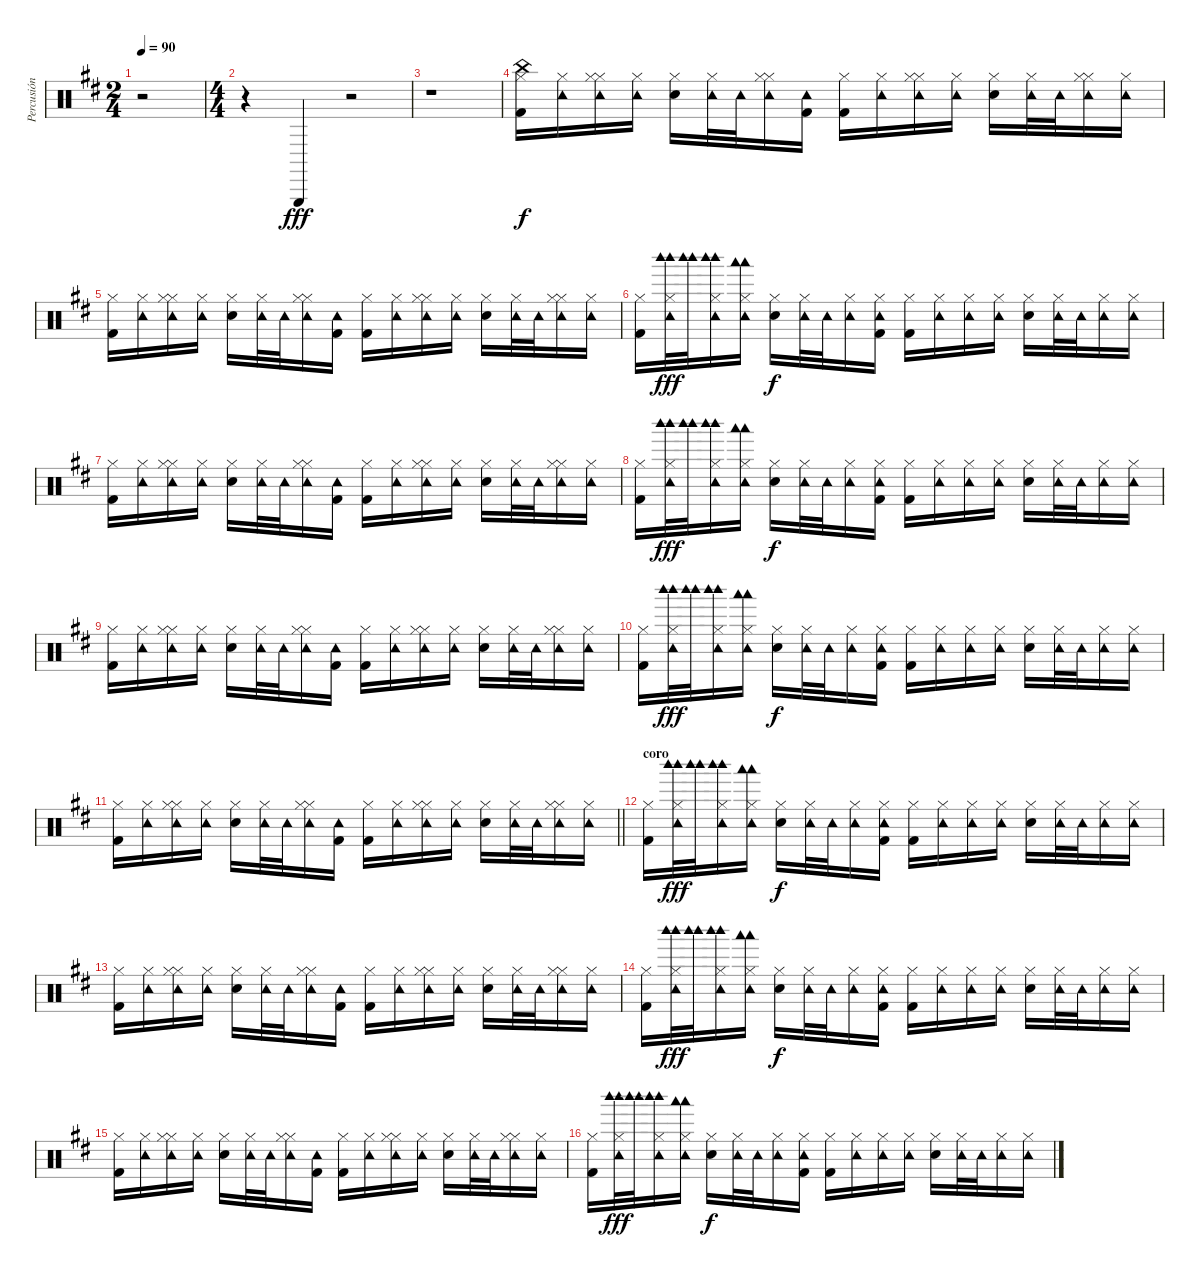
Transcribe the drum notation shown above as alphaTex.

\track ("Percusión" "Percusión") {instrument percussion}
\staff
\articulation defaults
\ts (2 4)
\tempo 90
\clef neutral
\ks bminor
r.2{dy fff} |
\ts (4 4)
r.4 "Triangle (hit)".4 r.2 |
r.1 |
("Kick (hit) 2" "China (hit)" "Hi-Hat (closed)").16{dy f} ("Tambourine (hit)" "Hi-Hat (closed)").16 ("Hi-Hat (closed)" "Tambourine (hit)" "Hi-Hat (closed)").16 ("Tambourine (hit)" "Hi-Hat (closed)").16 ("Electric Snare (hit)" "Hi-Hat (closed)").16 ("Tambourine (hit)" "Hi-Hat (closed)").32 "Tambourine (hit)".32 ("Hi-Hat (closed)" "Tambourine (hit)" "Hi-Hat (closed)").16 ("Kick (hit) 2" "Tambourine (hit)").16 ("Kick (hit) 2" "Hi-Hat (closed)").16 ("Tambourine (hit)" "Hi-Hat (closed)").16 ("Hi-Hat (closed)" "Tambourine (hit)" "Hi-Hat (closed)").16 ("Tambourine (hit)" "Hi-Hat (closed)").16 ("Electric Snare (hit)" "Hi-Hat (closed)").16 ("Tambourine (hit)" "Hi-Hat (closed)").32 "Tambourine (hit)".32 ("Hi-Hat (closed)" "Tambourine (hit)" "Hi-Hat (closed)").16 ("Tambourine (hit)" "Hi-Hat (closed)").16 |
("Kick (hit) 2" "Hi-Hat (closed)").16 ("Tambourine (hit)" "Hi-Hat (closed)").16 ("Hi-Hat (closed)" "Tambourine (hit)" "Hi-Hat (closed)").16 ("Tambourine (hit)" "Hi-Hat (closed)").16 ("Electric Snare (hit)" "Hi-Hat (closed)").16 ("Tambourine (hit)" "Hi-Hat (closed)").32 "Tambourine (hit)".32 ("Hi-Hat (closed)" "Tambourine (hit)" "Hi-Hat (closed)").16 ("Kick (hit) 2" "Tambourine (hit)").16 ("Kick (hit) 2" "Hi-Hat (closed)").16 ("Tambourine (hit)" "Hi-Hat (closed)").16 ("Hi-Hat (closed)" "Tambourine (hit)" "Hi-Hat (closed)").16 ("Tambourine (hit)" "Hi-Hat (closed)").16 ("Electric Snare (hit)" "Hi-Hat (closed)").16 ("Tambourine (hit)" "Hi-Hat (closed)").32 "Tambourine (hit)".32 ("Hi-Hat (closed)" "Tambourine (hit)" "Hi-Hat (closed)").16 ("Tambourine (hit)" "Hi-Hat (closed)").16 |
("Kick (hit) 2" "Hi-Hat (closed)").16 ("Hi-Hat (closed)" "Tambourine (hit)" "Woodblock high (hit)" "Woodblock high (hit)").32{dy fff} ("Woodblock high (hit)" "Woodblock high (hit)").32 ("Hi-Hat (closed)" "Tambourine (hit)" "Woodblock high (hit)" "Woodblock high (hit)").16 ("Hi-Hat (closed)" "Tambourine (hit)" "Woodblock low (hit)" "Woodblock low (hit)").16 ("Electric Snare (hit)" "Hi-Hat (closed)").16{dy f} ("Hi-Hat (closed)" "Tambourine (hit)").32 "Tambourine (hit)".32 ("Hi-Hat (closed)" "Tambourine (hit)").16 ("Kick (hit) 2" "Hi-Hat (closed)" "Tambourine (hit)").16 ("Kick (hit) 2" "Hi-Hat (closed)").16 ("Hi-Hat (closed)" "Tambourine (hit)").16 ("Hi-Hat (closed)" "Tambourine (hit)").16 ("Hi-Hat (closed)" "Tambourine (hit)").16 ("Electric Snare (hit)" "Hi-Hat (closed)").16 ("Hi-Hat (closed)" "Tambourine (hit)").32 "Tambourine (hit)".32 ("Hi-Hat (closed)" "Tambourine (hit)").16 ("Hi-Hat (closed)" "Tambourine (hit)").16 |
("Kick (hit) 2" "Hi-Hat (closed)").16 ("Tambourine (hit)" "Hi-Hat (closed)").16 ("Hi-Hat (closed)" "Tambourine (hit)" "Hi-Hat (closed)").16 ("Tambourine (hit)" "Hi-Hat (closed)").16 ("Electric Snare (hit)" "Hi-Hat (closed)").16 ("Tambourine (hit)" "Hi-Hat (closed)").32 "Tambourine (hit)".32 ("Hi-Hat (closed)" "Tambourine (hit)" "Hi-Hat (closed)").16 ("Kick (hit) 2" "Tambourine (hit)").16 ("Kick (hit) 2" "Hi-Hat (closed)").16 ("Tambourine (hit)" "Hi-Hat (closed)").16 ("Hi-Hat (closed)" "Tambourine (hit)" "Hi-Hat (closed)").16 ("Tambourine (hit)" "Hi-Hat (closed)").16 ("Electric Snare (hit)" "Hi-Hat (closed)").16 ("Tambourine (hit)" "Hi-Hat (closed)").32 "Tambourine (hit)".32 ("Hi-Hat (closed)" "Tambourine (hit)" "Hi-Hat (closed)").16 ("Tambourine (hit)" "Hi-Hat (closed)").16 |
("Kick (hit) 2" "Hi-Hat (closed)").16 ("Hi-Hat (closed)" "Tambourine (hit)" "Woodblock high (hit)" "Woodblock high (hit)").32{dy fff} ("Woodblock high (hit)" "Woodblock high (hit)").32 ("Hi-Hat (closed)" "Tambourine (hit)" "Woodblock high (hit)" "Woodblock high (hit)").16 ("Hi-Hat (closed)" "Tambourine (hit)" "Woodblock low (hit)" "Woodblock low (hit)").16 ("Electric Snare (hit)" "Hi-Hat (closed)").16{dy f} ("Hi-Hat (closed)" "Tambourine (hit)").32 "Tambourine (hit)".32 ("Hi-Hat (closed)" "Tambourine (hit)").16 ("Kick (hit) 2" "Hi-Hat (closed)" "Tambourine (hit)").16 ("Kick (hit) 2" "Hi-Hat (closed)").16 ("Hi-Hat (closed)" "Tambourine (hit)").16 ("Hi-Hat (closed)" "Tambourine (hit)").16 ("Hi-Hat (closed)" "Tambourine (hit)").16 ("Electric Snare (hit)" "Hi-Hat (closed)").16 ("Hi-Hat (closed)" "Tambourine (hit)").32 "Tambourine (hit)".32 ("Hi-Hat (closed)" "Tambourine (hit)").16 ("Hi-Hat (closed)" "Tambourine (hit)").16 |
("Kick (hit) 2" "Hi-Hat (closed)").16 ("Tambourine (hit)" "Hi-Hat (closed)").16 ("Hi-Hat (closed)" "Tambourine (hit)" "Hi-Hat (closed)").16 ("Tambourine (hit)" "Hi-Hat (closed)").16 ("Electric Snare (hit)" "Hi-Hat (closed)").16 ("Tambourine (hit)" "Hi-Hat (closed)").32 "Tambourine (hit)".32 ("Hi-Hat (closed)" "Tambourine (hit)" "Hi-Hat (closed)").16 ("Kick (hit) 2" "Tambourine (hit)").16 ("Kick (hit) 2" "Hi-Hat (closed)").16 ("Tambourine (hit)" "Hi-Hat (closed)").16 ("Hi-Hat (closed)" "Tambourine (hit)" "Hi-Hat (closed)").16 ("Tambourine (hit)" "Hi-Hat (closed)").16 ("Electric Snare (hit)" "Hi-Hat (closed)").16 ("Tambourine (hit)" "Hi-Hat (closed)").32 "Tambourine (hit)".32 ("Hi-Hat (closed)" "Tambourine (hit)" "Hi-Hat (closed)").16 ("Tambourine (hit)" "Hi-Hat (closed)").16 |
("Kick (hit) 2" "Hi-Hat (closed)").16 ("Hi-Hat (closed)" "Tambourine (hit)" "Woodblock high (hit)" "Woodblock high (hit)").32{dy fff} ("Woodblock high (hit)" "Woodblock high (hit)").32 ("Hi-Hat (closed)" "Tambourine (hit)" "Woodblock high (hit)" "Woodblock high (hit)").16 ("Hi-Hat (closed)" "Tambourine (hit)" "Woodblock low (hit)" "Woodblock low (hit)").16 ("Electric Snare (hit)" "Hi-Hat (closed)").16{dy f} ("Hi-Hat (closed)" "Tambourine (hit)").32 "Tambourine (hit)".32 ("Hi-Hat (closed)" "Tambourine (hit)").16 ("Kick (hit) 2" "Hi-Hat (closed)" "Tambourine (hit)").16 ("Kick (hit) 2" "Hi-Hat (closed)").16 ("Hi-Hat (closed)" "Tambourine (hit)").16 ("Hi-Hat (closed)" "Tambourine (hit)").16 ("Hi-Hat (closed)" "Tambourine (hit)").16 ("Electric Snare (hit)" "Hi-Hat (closed)").16 ("Hi-Hat (closed)" "Tambourine (hit)").32 "Tambourine (hit)".32 ("Hi-Hat (closed)" "Tambourine (hit)").16 ("Hi-Hat (closed)" "Tambourine (hit)").16 |
\barLineRight lightlight
("Kick (hit) 2" "Hi-Hat (closed)").16 ("Tambourine (hit)" "Hi-Hat (closed)").16 ("Hi-Hat (closed)" "Tambourine (hit)" "Hi-Hat (closed)").16 ("Tambourine (hit)" "Hi-Hat (closed)").16 ("Electric Snare (hit)" "Hi-Hat (closed)").16 ("Tambourine (hit)" "Hi-Hat (closed)").32 "Tambourine (hit)".32 ("Hi-Hat (closed)" "Tambourine (hit)" "Hi-Hat (closed)").16 ("Kick (hit) 2" "Tambourine (hit)").16 ("Kick (hit) 2" "Hi-Hat (closed)").16 ("Tambourine (hit)" "Hi-Hat (closed)").16 ("Hi-Hat (closed)" "Tambourine (hit)" "Hi-Hat (closed)").16 ("Tambourine (hit)" "Hi-Hat (closed)").16 ("Electric Snare (hit)" "Hi-Hat (closed)").16 ("Tambourine (hit)" "Hi-Hat (closed)").32 "Tambourine (hit)".32 ("Hi-Hat (closed)" "Tambourine (hit)" "Hi-Hat (closed)").16 ("Tambourine (hit)" "Hi-Hat (closed)").16 |
\section ("" "coro")
("Kick (hit) 2" "Hi-Hat (closed)").16 ("Hi-Hat (closed)" "Tambourine (hit)" "Woodblock high (hit)" "Woodblock high (hit)").32{dy fff} ("Woodblock high (hit)" "Woodblock high (hit)").32 ("Hi-Hat (closed)" "Tambourine (hit)" "Woodblock high (hit)" "Woodblock high (hit)").16 ("Hi-Hat (closed)" "Tambourine (hit)" "Woodblock low (hit)" "Woodblock low (hit)").16 ("Electric Snare (hit)" "Hi-Hat (closed)").16{dy f} ("Hi-Hat (closed)" "Tambourine (hit)").32 "Tambourine (hit)".32 ("Hi-Hat (closed)" "Tambourine (hit)").16 ("Kick (hit) 2" "Hi-Hat (closed)" "Tambourine (hit)").16 ("Kick (hit) 2" "Hi-Hat (closed)").16 ("Hi-Hat (closed)" "Tambourine (hit)").16 ("Hi-Hat (closed)" "Tambourine (hit)").16 ("Hi-Hat (closed)" "Tambourine (hit)").16 ("Electric Snare (hit)" "Hi-Hat (closed)").16 ("Hi-Hat (closed)" "Tambourine (hit)").32 "Tambourine (hit)".32 ("Hi-Hat (closed)" "Tambourine (hit)").16 ("Hi-Hat (closed)" "Tambourine (hit)").16 |
("Kick (hit) 2" "Hi-Hat (closed)").16 ("Tambourine (hit)" "Hi-Hat (closed)").16 ("Hi-Hat (closed)" "Tambourine (hit)" "Hi-Hat (closed)").16 ("Tambourine (hit)" "Hi-Hat (closed)").16 ("Electric Snare (hit)" "Hi-Hat (closed)").16 ("Tambourine (hit)" "Hi-Hat (closed)").32 "Tambourine (hit)".32 ("Hi-Hat (closed)" "Tambourine (hit)" "Hi-Hat (closed)").16 ("Kick (hit) 2" "Tambourine (hit)").16 ("Kick (hit) 2" "Hi-Hat (closed)").16 ("Tambourine (hit)" "Hi-Hat (closed)").16 ("Hi-Hat (closed)" "Tambourine (hit)" "Hi-Hat (closed)").16 ("Tambourine (hit)" "Hi-Hat (closed)").16 ("Electric Snare (hit)" "Hi-Hat (closed)").16 ("Tambourine (hit)" "Hi-Hat (closed)").32 "Tambourine (hit)".32 ("Hi-Hat (closed)" "Tambourine (hit)" "Hi-Hat (closed)").16 ("Tambourine (hit)" "Hi-Hat (closed)").16 |
("Kick (hit) 2" "Hi-Hat (closed)").16 ("Hi-Hat (closed)" "Tambourine (hit)" "Woodblock high (hit)" "Woodblock high (hit)").32{dy fff} ("Woodblock high (hit)" "Woodblock high (hit)").32 ("Hi-Hat (closed)" "Tambourine (hit)" "Woodblock high (hit)" "Woodblock high (hit)").16 ("Hi-Hat (closed)" "Tambourine (hit)" "Woodblock low (hit)" "Woodblock low (hit)").16 ("Electric Snare (hit)" "Hi-Hat (closed)").16{dy f} ("Hi-Hat (closed)" "Tambourine (hit)").32 "Tambourine (hit)".32 ("Hi-Hat (closed)" "Tambourine (hit)").16 ("Kick (hit) 2" "Hi-Hat (closed)" "Tambourine (hit)").16 ("Kick (hit) 2" "Hi-Hat (closed)").16 ("Hi-Hat (closed)" "Tambourine (hit)").16 ("Hi-Hat (closed)" "Tambourine (hit)").16 ("Hi-Hat (closed)" "Tambourine (hit)").16 ("Electric Snare (hit)" "Hi-Hat (closed)").16 ("Hi-Hat (closed)" "Tambourine (hit)").32 "Tambourine (hit)".32 ("Hi-Hat (closed)" "Tambourine (hit)").16 ("Hi-Hat (closed)" "Tambourine (hit)").16 |
("Kick (hit) 2" "Hi-Hat (closed)").16 ("Tambourine (hit)" "Hi-Hat (closed)").16 ("Hi-Hat (closed)" "Tambourine (hit)" "Hi-Hat (closed)").16 ("Tambourine (hit)" "Hi-Hat (closed)").16 ("Electric Snare (hit)" "Hi-Hat (closed)").16 ("Tambourine (hit)" "Hi-Hat (closed)").32 "Tambourine (hit)".32 ("Hi-Hat (closed)" "Tambourine (hit)" "Hi-Hat (closed)").16 ("Kick (hit) 2" "Tambourine (hit)").16 ("Kick (hit) 2" "Hi-Hat (closed)").16 ("Tambourine (hit)" "Hi-Hat (closed)").16 ("Hi-Hat (closed)" "Tambourine (hit)" "Hi-Hat (closed)").16 ("Tambourine (hit)" "Hi-Hat (closed)").16 ("Electric Snare (hit)" "Hi-Hat (closed)").16 ("Tambourine (hit)" "Hi-Hat (closed)").32 "Tambourine (hit)".32 ("Hi-Hat (closed)" "Tambourine (hit)" "Hi-Hat (closed)").16 ("Tambourine (hit)" "Hi-Hat (closed)").16 |
("Kick (hit) 2" "Hi-Hat (closed)").16 ("Hi-Hat (closed)" "Tambourine (hit)" "Woodblock high (hit)" "Woodblock high (hit)").32{dy fff} ("Woodblock high (hit)" "Woodblock high (hit)").32 ("Hi-Hat (closed)" "Tambourine (hit)" "Woodblock high (hit)" "Woodblock high (hit)").16 ("Hi-Hat (closed)" "Tambourine (hit)" "Woodblock low (hit)" "Woodblock low (hit)").16 ("Electric Snare (hit)" "Hi-Hat (closed)").16{dy f} ("Hi-Hat (closed)" "Tambourine (hit)").32 "Tambourine (hit)".32 ("Hi-Hat (closed)" "Tambourine (hit)").16 ("Kick (hit) 2" "Hi-Hat (closed)" "Tambourine (hit)").16 ("Kick (hit) 2" "Hi-Hat (closed)").16 ("Hi-Hat (closed)" "Tambourine (hit)").16 ("Hi-Hat (closed)" "Tambourine (hit)").16 ("Hi-Hat (closed)" "Tambourine (hit)").16 ("Electric Snare (hit)" "Hi-Hat (closed)").16 ("Hi-Hat (closed)" "Tambourine (hit)").32 "Tambourine (hit)".32 ("Hi-Hat (closed)" "Tambourine (hit)").16 ("Hi-Hat (closed)" "Tambourine (hit)").16
